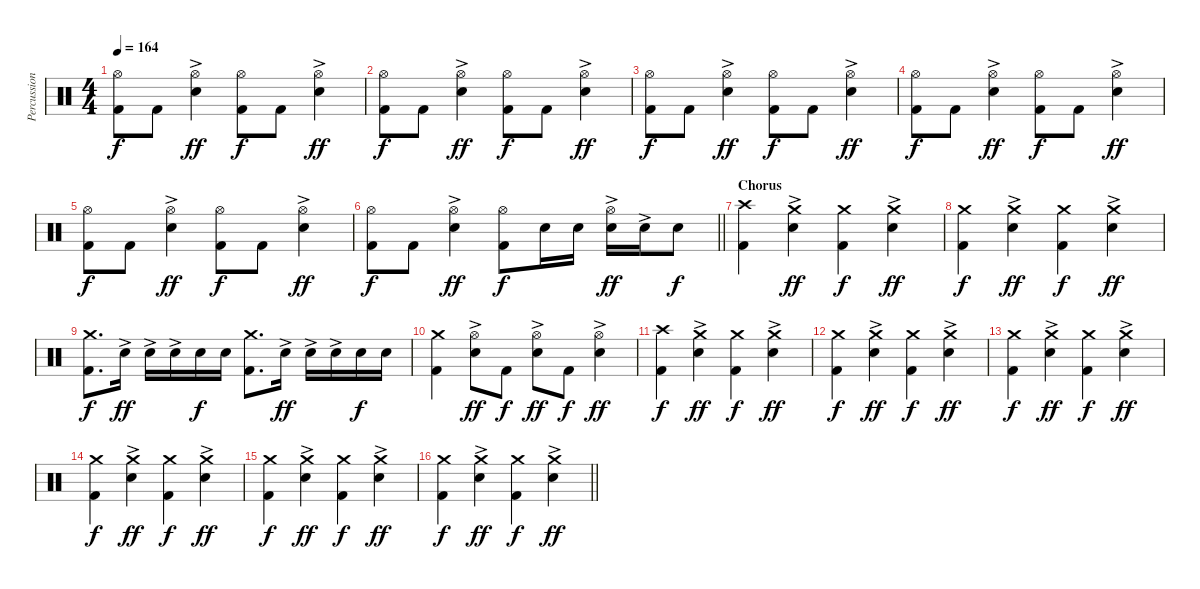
\track ("Percussion" "Percussion") {instrument percussion}
\staff {score}
\articulation defaults
\ts (4 4)
\tempo 164
\clef neutral
\ks c
("Hi-Hat (open)" "Kick (hit) 2").8{dy f} "Kick (hit) 2".8 ("Hi-Hat (open)" "Electric Snare (hit)"{ac}).4{dy ff} ("Hi-Hat (open)" "Kick (hit) 2").8{dy f} "Kick (hit) 2".8 ("Hi-Hat (open)" "Electric Snare (hit)"{ac}).4{dy ff} |
("Hi-Hat (open)" "Kick (hit) 2").8{dy f} "Kick (hit) 2".8 ("Hi-Hat (open)" "Electric Snare (hit)"{ac}).4{dy ff} ("Hi-Hat (open)" "Kick (hit) 2").8{dy f} "Kick (hit) 2".8 ("Hi-Hat (open)" "Electric Snare (hit)"{ac}).4{dy ff} |
("Hi-Hat (open)" "Kick (hit) 2").8{dy f} "Kick (hit) 2".8 ("Hi-Hat (open)" "Electric Snare (hit)"{ac}).4{dy ff} ("Hi-Hat (open)" "Kick (hit) 2").8{dy f} "Kick (hit) 2".8 ("Hi-Hat (open)" "Electric Snare (hit)"{ac}).4{dy ff} |
("Hi-Hat (open)" "Kick (hit) 2").8{dy f} "Kick (hit) 2".8 ("Hi-Hat (open)" "Electric Snare (hit)"{ac}).4{dy ff} ("Hi-Hat (open)" "Kick (hit) 2").8{dy f} "Kick (hit) 2".8 ("Hi-Hat (open)" "Electric Snare (hit)"{ac}).4{dy ff} |
("Hi-Hat (open)" "Kick (hit) 2").8{dy f} "Kick (hit) 2".8 ("Hi-Hat (open)" "Electric Snare (hit)"{ac}).4{dy ff} ("Hi-Hat (open)" "Kick (hit) 2").8{dy f} "Kick (hit) 2".8 ("Hi-Hat (open)" "Electric Snare (hit)"{ac}).4{dy ff} |
\barLineRight lightlight
("Hi-Hat (open)" "Kick (hit) 2").8{dy f} "Kick (hit) 2".8 ("Hi-Hat (open)" "Electric Snare (hit)"{ac}).4{dy ff} ("Hi-Hat (open)" "Kick (hit) 2").8{dy f} "Electric Snare (hit)".16 "Electric Snare (hit)".16 ("Hi-Hat (open)" "Electric Snare (hit)"{ac}).16{dy ff} "Electric Snare (hit)"{ac}.16 "Electric Snare (hit)".8{dy f} |
\section ("" "Chorus")
("Crash high (hit)" "Kick (hit) 2").4 ("Crash medium (hit)" "Electric Snare (hit)"{ac}).4{dy ff} ("Crash medium (hit)" "Kick (hit) 2").4{dy f} ("Crash medium (hit)" "Electric Snare (hit)"{ac}).4{dy ff} |
("Crash medium (hit)" "Kick (hit) 2").4{dy f} ("Crash medium (hit)" "Electric Snare (hit)"{ac}).4{dy ff} ("Crash medium (hit)" "Kick (hit) 2").4{dy f} ("Crash medium (hit)" "Electric Snare (hit)"{ac}).4{dy ff} |
("Crash medium (hit)" "Kick (hit) 2").8{d dy f} "Electric Snare (hit)"{ac}.16{dy ff} "Electric Snare (hit)"{ac}.16 "Electric Snare (hit)"{ac}.16 "Electric Snare (hit)".16{dy f} "Electric Snare (hit)".16 ("Crash medium (hit)" "Kick (hit) 2").8{d} "Electric Snare (hit)"{ac}.16{dy ff} "Electric Snare (hit)"{ac}.16 "Electric Snare (hit)"{ac}.16 "Electric Snare (hit)".16{dy f} "Electric Snare (hit)".16 |
("Crash medium (hit)" "Kick (hit) 2").4 ("Hi-Hat (open)" "Electric Snare (hit)"{ac}).8{dy ff} "Kick (hit) 2".8{dy f} ("Hi-Hat (open)" "Electric Snare (hit)"{ac}).8{dy ff} "Kick (hit) 2".8{dy f} ("Hi-Hat (open)" "Electric Snare (hit)"{ac}).4{dy ff} |
("Crash high (hit)" "Kick (hit) 2").4{dy f} ("Crash medium (hit)" "Electric Snare (hit)"{ac}).4{dy ff} ("Crash medium (hit)" "Kick (hit) 2").4{dy f} ("Crash medium (hit)" "Electric Snare (hit)"{ac}).4{dy ff} |
("Crash medium (hit)" "Kick (hit) 2").4{dy f} ("Crash medium (hit)" "Electric Snare (hit)"{ac}).4{dy ff} ("Crash medium (hit)" "Kick (hit) 2").4{dy f} ("Crash medium (hit)" "Electric Snare (hit)"{ac}).4{dy ff} |
("Crash medium (hit)" "Kick (hit) 2").4{dy f} ("Crash medium (hit)" "Electric Snare (hit)"{ac}).4{dy ff} ("Crash medium (hit)" "Kick (hit) 2").4{dy f} ("Crash medium (hit)" "Electric Snare (hit)"{ac}).4{dy ff} |
("Crash medium (hit)" "Kick (hit) 2").4{dy f} ("Crash medium (hit)" "Electric Snare (hit)"{ac}).4{dy ff} ("Crash medium (hit)" "Kick (hit) 2").4{dy f} ("Crash medium (hit)" "Electric Snare (hit)"{ac}).4{dy ff} |
("Crash medium (hit)" "Kick (hit) 2").4{dy f} ("Crash medium (hit)" "Electric Snare (hit)"{ac}).4{dy ff} ("Crash medium (hit)" "Kick (hit) 2").4{dy f} ("Crash medium (hit)" "Electric Snare (hit)"{ac}).4{dy ff} |
\barLineRight lightlight
("Crash medium (hit)" "Kick (hit) 2").4{dy f} ("Crash medium (hit)" "Electric Snare (hit)"{ac}).4{dy ff} ("Crash medium (hit)" "Kick (hit) 2").4{dy f} ("Crash medium (hit)" "Electric Snare (hit)"{ac}).4{dy ff}
